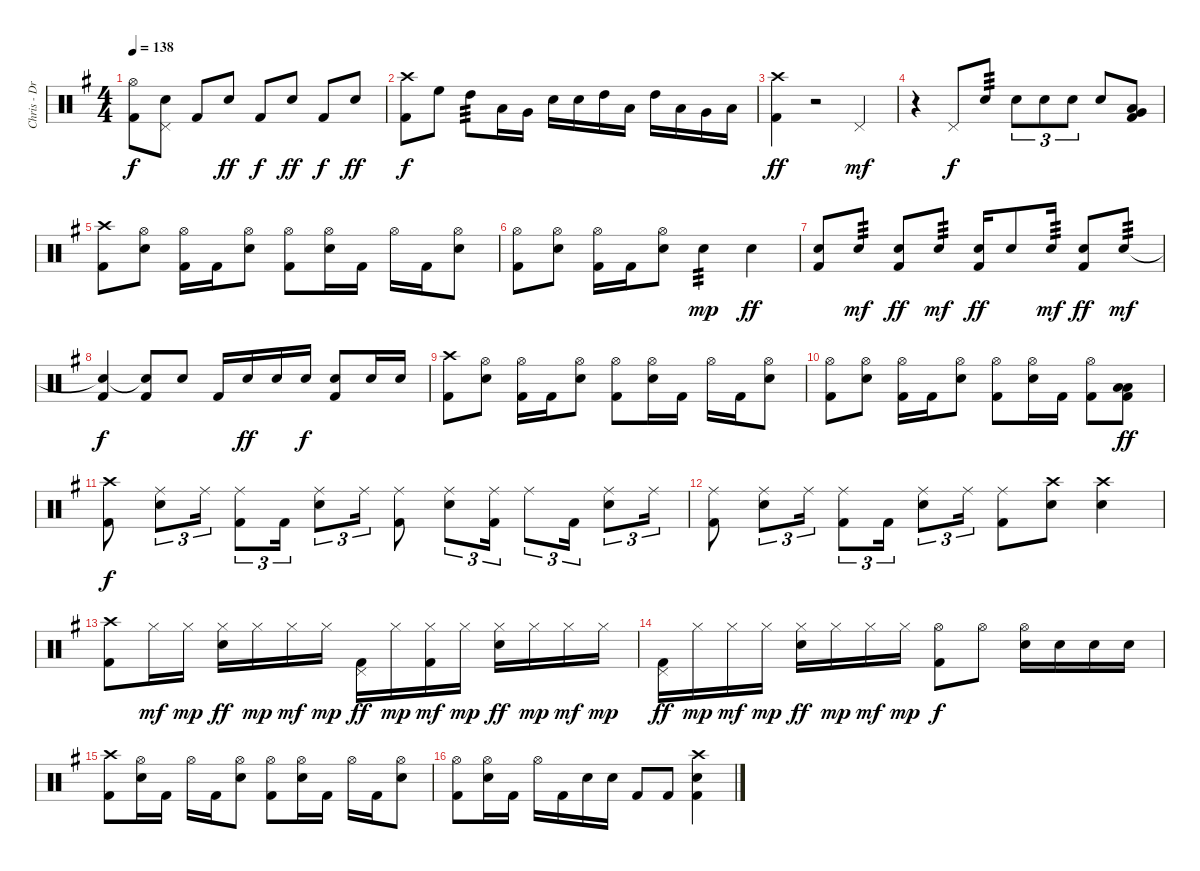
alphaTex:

\track ("Chris - Drums" "Chris - Dr") {instrument percussion}
\staff {score}
\articulation defaults
\ts (4 4)
\tempo 138
\clef neutral
\ks g
("Hi-Hat (open)" "Kick (hit) 2").8{dy f} ("Pedal Hi-Hat (hit)" "Electric Snare (hit)").8 "Kick (hit) 2".8 "Electric Snare (hit)".8{dy ff} "Kick (hit) 2".8{dy f} "Electric Snare (hit)".8{dy ff} "Kick (hit) 2".8{dy f} "Electric Snare (hit)".8{dy ff} |
("Crash high (hit)" "Kick (hit) 2").8{dy f} "High Floor Tom (hit)".8 "High Tom (hit)".8{tp 3} "Low Tom (hit)".16 "Very Low Tom (hit)".16 "Electric Snare (hit)".16 "Electric Snare (hit)".16 "High Tom (hit)".16 "Low Tom (hit)".16 "High Tom (hit)".16 "Low Tom (hit)".16 "Very Low Tom (hit)".16 "Low Floor Tom (hit)".16 |
("Crash high (hit)" "Kick (hit) 2").4{dy ff} r.2 "Pedal Hi-Hat (hit)".4{dy mf} |
r.4 "Pedal Hi-Hat (hit)".8{dy f} "Electric Snare (hit)".8{tp 3} "Electric Snare (hit)".8{tu (3 2)} "Electric Snare (hit)".8{tu (3 2)} "Electric Snare (hit)".8{tu (3 2)} "Electric Snare (hit)".8 ("Very Low Tom (hit)" "Low Floor Tom (hit)" "Kick (hit) 2").8 |
("Crash high (hit)" "Kick (hit) 2").8 ("Hi-Hat (open)" "Electric Snare (hit)").8 ("Hi-Hat (open)" "Kick (hit) 2").16 "Kick (hit) 2".16 ("Hi-Hat (open)" "Electric Snare (hit)").8 ("Hi-Hat (open)" "Kick (hit) 2").8 ("Hi-Hat (open)" "Electric Snare (hit)").16 "Kick (hit) 2".16 "Hi-Hat (open)".16 "Kick (hit) 2".16 ("Hi-Hat (open)" "Electric Snare (hit)").8 |
("Hi-Hat (open)" "Kick (hit) 2").8 ("Hi-Hat (open)" "Electric Snare (hit)").8 ("Hi-Hat (open)" "Kick (hit) 2").16 "Kick (hit) 2".16 ("Hi-Hat (open)" "Electric Snare (hit)").8 "Electric Snare (hit)".4{tp 3 dy mp} "Electric Snare (hit)".4{dy ff} |
("Electric Snare (hit)" "Kick (hit) 2").8 "Electric Snare (hit)".8{tp 3 dy mf} ("Electric Snare (hit)" "Kick (hit) 2").8{dy ff} "Electric Snare (hit)".8{tp 3 dy mf} ("Electric Snare (hit)" "Kick (hit) 2").16{dy ff} "Electric Snare (hit)".8 "Electric Snare (hit)".16{tp 3 dy mf} ("Electric Snare (hit)" "Kick (hit) 2").8{dy ff} "Electric Snare (hit)".8{tp 3 dy mf} |
("Snare (hit)"{t} "Kick (hit) 2").4{dy f} ("Snare (hit)"{t} "Kick (hit) 2").8 "Electric Snare (hit)".8 "Kick (hit) 2".16 "Electric Snare (hit)".16{dy ff} "Electric Snare (hit)".16 "Electric Snare (hit)".16{dy f} ("Electric Snare (hit)" "Kick (hit) 2").8 "Electric Snare (hit)".16 "Electric Snare (hit)".16 |
("Crash high (hit)" "Kick (hit) 2").8 ("Hi-Hat (open)" "Electric Snare (hit)").8 ("Hi-Hat (open)" "Kick (hit) 2").16 "Kick (hit) 2".16 ("Hi-Hat (open)" "Electric Snare (hit)").8 ("Hi-Hat (open)" "Kick (hit) 2").8 ("Hi-Hat (open)" "Electric Snare (hit)").16 "Kick (hit) 2".16 "Hi-Hat (open)".16 "Kick (hit) 2".16 ("Hi-Hat (open)" "Electric Snare (hit)").8 |
("Hi-Hat (open)" "Kick (hit) 2").8 ("Hi-Hat (open)" "Electric Snare (hit)").8 ("Hi-Hat (open)" "Kick (hit) 2").16 "Kick (hit) 2".16 ("Hi-Hat (open)" "Electric Snare (hit)").8 ("Hi-Hat (open)" "Kick (hit) 2").8 ("Hi-Hat (open)" "Electric Snare (hit)").16 "Kick (hit) 2".16 ("Hi-Hat (open)" "Kick (hit) 2").8 ("Low Tom (hit)" "Low Floor Tom (hit)" "Kick (hit) 2").8{dy ff} |
("Crash high (hit)" "Kick (hit) 2").8{dy f} ("Ride (middle)" "Electric Snare (hit)").8{tu (3 2)} "Ride (middle)".16{tu (3 2)} ("Ride (middle)" "Kick (hit) 2").8{tu (3 2)} "Kick (hit) 2".16{tu (3 2)} ("Ride (middle)" "Electric Snare (hit)").8{tu (3 2)} "Ride (middle)".16{tu (3 2)} ("Ride (middle)" "Kick (hit) 2").8 ("Ride (middle)" "Electric Snare (hit)").8{tu (3 2)} ("Ride (middle)" "Kick (hit) 2").16{tu (3 2)} "Ride (middle)".8{tu (3 2)} "Kick (hit) 2".16{tu (3 2)} ("Ride (middle)" "Electric Snare (hit)").8{tu (3 2)} "Ride (middle)".16{tu (3 2)} |
("Ride (middle)" "Kick (hit) 2").8 ("Ride (middle)" "Electric Snare (hit)").8{tu (3 2)} "Ride (middle)".16{tu (3 2)} ("Ride (middle)" "Kick (hit) 2").8{tu (3 2)} "Kick (hit) 2".16{tu (3 2)} ("Ride (middle)" "Electric Snare (hit)").8{tu (3 2)} "Ride (middle)".16{tu (3 2)} ("Ride (middle)" "Kick (hit) 2").8 ("Crash high (hit)" "Electric Snare (hit)").8 ("Crash high (hit)" "Electric Snare (hit)").4 |
("Crash high (hit)" "Kick (hit) 2").8 "Hi-Hat (closed)".16{dy mf} "Hi-Hat (closed)".16{dy mp} ("Hi-Hat (closed)" "Electric Snare (hit)").16{dy ff} "Hi-Hat (closed)".16{dy mp} "Hi-Hat (closed)".16{dy mf} "Hi-Hat (closed)".16{dy mp} ("Pedal Hi-Hat (hit)" "Kick (hit) 2").16{dy ff} "Hi-Hat (closed)".16{dy mp} ("Hi-Hat (closed)" "Kick (hit) 2").16{dy mf} "Hi-Hat (closed)".16{dy mp} ("Hi-Hat (closed)" "Electric Snare (hit)").16{dy ff} "Hi-Hat (closed)".16{dy mp} "Hi-Hat (closed)".16{dy mf} "Hi-Hat (closed)".16{dy mp} |
("Pedal Hi-Hat (hit)" "Kick (hit) 2").16{dy ff} "Hi-Hat (closed)".16{dy mp} "Hi-Hat (closed)".16{dy mf} "Hi-Hat (closed)".16{dy mp} ("Hi-Hat (closed)" "Electric Snare (hit)").16{dy ff} "Hi-Hat (closed)".16{dy mp} "Hi-Hat (closed)".16{dy mf} "Hi-Hat (closed)".16{dy mp} ("Hi-Hat (open)" "Kick (hit) 2").8{dy f} "Hi-Hat (open)".8 ("Hi-Hat (open)" "Electric Snare (hit)").16 "Electric Snare (hit)".16 "Electric Snare (hit)".16 "Electric Snare (hit)".16 |
("Crash high (hit)" "Kick (hit) 2").8 ("Hi-Hat (open)" "Electric Snare (hit)").16 "Kick (hit) 2".16 "Hi-Hat (open)".16 "Kick (hit) 2".16 ("Hi-Hat (open)" "Electric Snare (hit)").8 ("Hi-Hat (open)" "Kick (hit) 2").8 ("Hi-Hat (open)" "Electric Snare (hit)").16 "Kick (hit) 2".16 "Hi-Hat (open)".16 "Kick (hit) 2".16 ("Hi-Hat (open)" "Electric Snare (hit)").8 |
("Hi-Hat (open)" "Kick (hit) 2").8 ("Hi-Hat (open)" "Electric Snare (hit)").16 "Kick (hit) 2".16 "Hi-Hat (open)".16 "Kick (hit) 2".16 "Electric Snare (hit)".16 "Electric Snare (hit)".16 "Kick (hit) 2".8 "Kick (hit) 2".8 ("Crash high (hit)" "Electric Snare (hit)" "Kick (hit) 2").4
